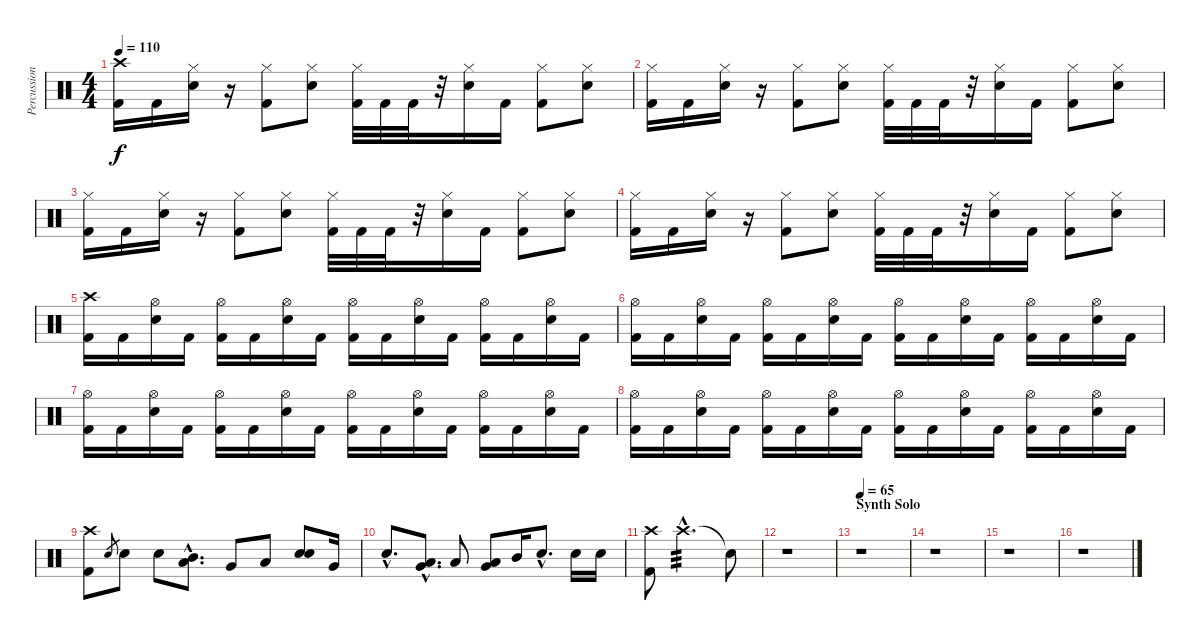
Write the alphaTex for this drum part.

\track ("Percussions" "Percussion") {instrument percussion}
\staff {score}
\articulation defaults
\ts (4 4)
\tempo 110
\clef neutral
\ks c
("Crash high (hit)" "Kick (hit) 2").16{dy f} "Kick (hit) 2".16 ("Hi-Hat (closed)" "Electric Snare (hit)").16 r.16 ("Hi-Hat (closed)" "Kick (hit) 2").8 ("Hi-Hat (closed)" "Electric Snare (hit)").8 ("Hi-Hat (closed)" "Kick (hit) 2").32 "Kick (hit) 2".32 "Kick (hit) 2".32 r.32 ("Hi-Hat (closed)" "Electric Snare (hit)").16 "Kick (hit) 2".16 ("Hi-Hat (closed)" "Kick (hit) 2").8 ("Hi-Hat (closed)" "Electric Snare (hit)").8 |
("Hi-Hat (closed)" "Kick (hit) 2").16 "Kick (hit) 2".16 ("Hi-Hat (closed)" "Electric Snare (hit)").16 r.16 ("Hi-Hat (closed)" "Kick (hit) 2").8 ("Hi-Hat (closed)" "Electric Snare (hit)").8 ("Hi-Hat (closed)" "Kick (hit) 2").32 "Kick (hit) 2".32 "Kick (hit) 2".32 r.32 ("Hi-Hat (closed)" "Electric Snare (hit)").16 "Kick (hit) 2".16 ("Hi-Hat (closed)" "Kick (hit) 2").8 ("Hi-Hat (closed)" "Electric Snare (hit)").8 |
("Hi-Hat (closed)" "Kick (hit) 2").16 "Kick (hit) 2".16 ("Hi-Hat (closed)" "Electric Snare (hit)").16 r.16 ("Hi-Hat (closed)" "Kick (hit) 2").8 ("Hi-Hat (closed)" "Electric Snare (hit)").8 ("Hi-Hat (closed)" "Kick (hit) 2").32 "Kick (hit) 2".32 "Kick (hit) 2".32 r.32 ("Hi-Hat (closed)" "Electric Snare (hit)").16 "Kick (hit) 2".16 ("Hi-Hat (closed)" "Kick (hit) 2").8 ("Hi-Hat (closed)" "Electric Snare (hit)").8 |
("Hi-Hat (closed)" "Kick (hit) 2").16 "Kick (hit) 2".16 ("Hi-Hat (closed)" "Electric Snare (hit)").16 r.16 ("Hi-Hat (closed)" "Kick (hit) 2").8 ("Hi-Hat (closed)" "Electric Snare (hit)").8 ("Hi-Hat (closed)" "Kick (hit) 2").32 "Kick (hit) 2".32 "Kick (hit) 2".32 r.32 ("Hi-Hat (closed)" "Electric Snare (hit)").16 "Kick (hit) 2".16 ("Hi-Hat (closed)" "Kick (hit) 2").8 ("Hi-Hat (closed)" "Electric Snare (hit)").8 |
("Crash high (hit)" "Kick (hit) 2").16 "Kick (hit) 2".16 ("Hi-Hat (open)" "Electric Snare (hit)").16 "Kick (hit) 2".16 ("Hi-Hat (open)" "Kick (hit) 2").16 "Kick (hit) 2".16 ("Hi-Hat (open)" "Electric Snare (hit)").16 "Kick (hit) 2".16 ("Hi-Hat (open)" "Kick (hit) 2").16 "Kick (hit) 2".16 ("Hi-Hat (open)" "Electric Snare (hit)").16 "Kick (hit) 2".16 ("Hi-Hat (open)" "Kick (hit) 2").16 "Kick (hit) 2".16 ("Hi-Hat (open)" "Electric Snare (hit)").16 "Kick (hit) 2".16 |
("Hi-Hat (open)" "Kick (hit) 2").16 "Kick (hit) 2".16 ("Hi-Hat (open)" "Electric Snare (hit)").16 "Kick (hit) 2".16 ("Hi-Hat (open)" "Kick (hit) 2").16 "Kick (hit) 2".16 ("Hi-Hat (open)" "Electric Snare (hit)").16 "Kick (hit) 2".16 ("Hi-Hat (open)" "Kick (hit) 2").16 "Kick (hit) 2".16 ("Hi-Hat (open)" "Electric Snare (hit)").16 "Kick (hit) 2".16 ("Hi-Hat (open)" "Kick (hit) 2").16 "Kick (hit) 2".16 ("Hi-Hat (open)" "Electric Snare (hit)").16 "Kick (hit) 2".16 |
("Hi-Hat (open)" "Kick (hit) 2").16 "Kick (hit) 2".16 ("Hi-Hat (open)" "Electric Snare (hit)").16 "Kick (hit) 2".16 ("Hi-Hat (open)" "Kick (hit) 2").16 "Kick (hit) 2".16 ("Hi-Hat (open)" "Electric Snare (hit)").16 "Kick (hit) 2".16 ("Hi-Hat (open)" "Kick (hit) 2").16 "Kick (hit) 2".16 ("Hi-Hat (open)" "Electric Snare (hit)").16 "Kick (hit) 2".16 ("Hi-Hat (open)" "Kick (hit) 2").16 "Kick (hit) 2".16 ("Hi-Hat (open)" "Electric Snare (hit)").16 "Kick (hit) 2".16 |
("Hi-Hat (open)" "Kick (hit) 2").16 "Kick (hit) 2".16 ("Hi-Hat (open)" "Electric Snare (hit)").16 "Kick (hit) 2".16 ("Hi-Hat (open)" "Kick (hit) 2").16 "Kick (hit) 2".16 ("Hi-Hat (open)" "Electric Snare (hit)").16 "Kick (hit) 2".16 ("Hi-Hat (open)" "Kick (hit) 2").16 "Kick (hit) 2".16 ("Hi-Hat (open)" "Electric Snare (hit)").16 "Kick (hit) 2".16 ("Hi-Hat (open)" "Kick (hit) 2").16 "Kick (hit) 2".16 ("Hi-Hat (open)" "Electric Snare (hit)").16 "Kick (hit) 2".16 |
("Crash high (hit)" "Kick (hit) 2").8 "Electric Snare (hit)".8{gr} "Electric Snare (hit)".8 "Electric Snare (hit)".8 ("Mid Tom (hit)"{hac} "Low Tom (hit)"{hac}).8{d} "Very Low Tom (hit)".8 "Low Floor Tom (hit)".8 ("Electric Snare (hit)" "Electric Snare (hit)").8 "Very Low Tom (hit)".16 |
"Electric Snare (hit)"{hac}.8{d} ("Very Low Tom (hit)"{hac} "Low Tom (hit)"{hac}).8{d} "Low Floor Tom (hit)".8 ("Very Low Tom (hit)" "Low Tom (hit)").8 "Mid Tom (hit)".16 "Electric Snare (hit)"{hac}.8{d} "Electric Snare (hit)".16 "Electric Snare (hit)".16 |
("Crash high (hit)" "Kick (hit) 2").8 "Crash high (hit)"{hac}.2{d tp 3 volume 3} "Snare (hit)"{t}.8 |
r.1 |
\section ("" "Synth Solo")
\tempo 65
r.1 |
r.1 |
r.1 |
r.1
